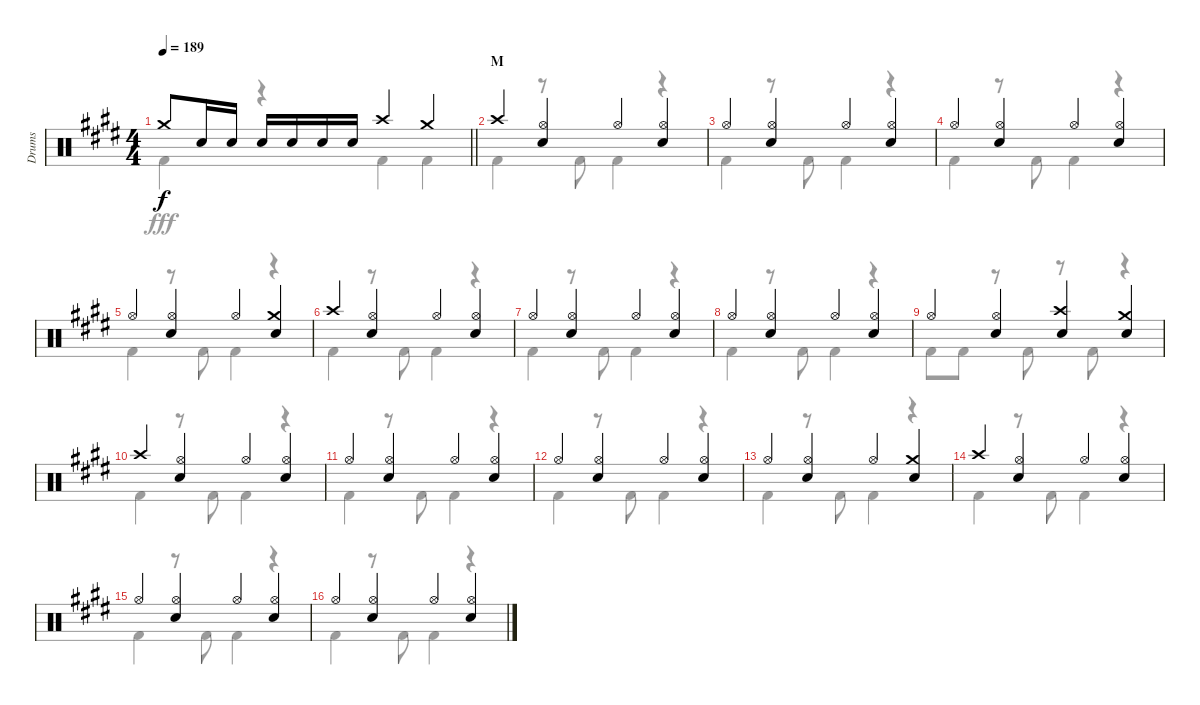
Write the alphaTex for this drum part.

\track ("Drums" "Drums") {instrument percussion}
\staff {score}
\articulation defaults
\voice
\ts (4 4)
\tempo 189
\clef neutral
\barLineRight lightlight
\ks e "Crash medium (hit)".8{dy f} "Snare (hit) 2".16 "Snare (hit) 2".16 "Snare (hit) 2".16 "Snare (hit) 2".16 "Snare (hit) 2".16 "Snare (hit) 2".16 "Crash high (hit)".4 "Crash medium (hit)".4
|
\section ("" "M")
"Crash high (hit)".4 ("Hi-Hat (open)" "Snare (hit) 2").4 "Hi-Hat (open)".4 ("Hi-Hat (open)" "Snare (hit) 2").4 |
"Hi-Hat (open)".4 ("Hi-Hat (open)" "Snare (hit) 2").4 "Hi-Hat (open)".4 ("Hi-Hat (open)" "Snare (hit) 2").4 |
"Hi-Hat (open)".4 ("Hi-Hat (open)" "Snare (hit) 2").4 "Hi-Hat (open)".4 ("Hi-Hat (open)" "Snare (hit) 2").4 |
"Hi-Hat (open)".4 ("Hi-Hat (open)" "Snare (hit) 2").4 "Hi-Hat (open)".4 ("Crash medium (hit)" "Snare (hit) 2").4 |
"Crash high (hit)".4 ("Hi-Hat (open)" "Snare (hit) 2").4 "Hi-Hat (open)".4 ("Hi-Hat (open)" "Snare (hit) 2").4 |
"Hi-Hat (open)".4 ("Hi-Hat (open)" "Snare (hit) 2").4 "Hi-Hat (open)".4 ("Hi-Hat (open)" "Snare (hit) 2").4 |
"Hi-Hat (open)".4 ("Hi-Hat (open)" "Snare (hit) 2").4 "Hi-Hat (open)".4 ("Hi-Hat (open)" "Snare (hit) 2").4 |
"Hi-Hat (open)".4 ("Hi-Hat (open)" "Snare (hit) 2").4 ("Crash high (hit)" "Snare (hit) 2").4 ("Crash medium (hit)" "Snare (hit) 2").4 |
"Crash high (hit)".4 ("Hi-Hat (open)" "Snare (hit) 2").4 "Hi-Hat (open)".4 ("Hi-Hat (open)" "Snare (hit) 2").4 |
"Hi-Hat (open)".4 ("Hi-Hat (open)" "Snare (hit) 2").4 "Hi-Hat (open)".4 ("Hi-Hat (open)" "Snare (hit) 2").4 |
"Hi-Hat (open)".4 ("Hi-Hat (open)" "Snare (hit) 2").4 "Hi-Hat (open)".4 ("Hi-Hat (open)" "Snare (hit) 2").4 |
"Hi-Hat (open)".4 ("Hi-Hat (open)" "Snare (hit) 2").4 "Hi-Hat (open)".4 ("Crash medium (hit)" "Snare (hit) 2").4 |
"Crash high (hit)".4 ("Hi-Hat (open)" "Snare (hit) 2").4 "Hi-Hat (open)".4 ("Hi-Hat (open)" "Snare (hit) 2").4 |
"Hi-Hat (open)".4 ("Hi-Hat (open)" "Snare (hit) 2").4 "Hi-Hat (open)".4 ("Hi-Hat (open)" "Snare (hit) 2").4 |
"Hi-Hat (open)".4 ("Hi-Hat (open)" "Snare (hit) 2").4 "Hi-Hat (open)".4 ("Hi-Hat (open)" "Snare (hit) 2").4
\voice
\clef neutral
\ottava regular
\simile none
\barLineRight lightlight
\ks e "Kick (hit) 2".4{dy fff}
r.4 "Kick (hit) 2".4 "Kick (hit) 2".4 |
"Kick (hit) 2".4 r.8 "Kick (hit) 2".8 "Kick (hit) 2".4 r.4 |
"Kick (hit) 2".4 r.8 "Kick (hit) 2".8 "Kick (hit) 2".4 r.4 |
"Kick (hit) 2".4 r.8 "Kick (hit) 2".8 "Kick (hit) 2".4 r.4 |
"Kick (hit) 2".4 r.8 "Kick (hit) 2".8 "Kick (hit) 2".4 r.4 |
"Kick (hit) 2".4 r.8 "Kick (hit) 2".8 "Kick (hit) 2".4 r.4 |
"Kick (hit) 2".4 r.8 "Kick (hit) 2".8 "Kick (hit) 2".4 r.4 |
"Kick (hit) 2".4 r.8 "Kick (hit) 2".8 "Kick (hit) 2".4 r.4 |
"Kick (hit) 2".8 "Kick (hit) 2".8 r.8 "Kick (hit) 2".8 r.8 "Kick (hit) 2".8 r.4 |
"Kick (hit) 2".4 r.8 "Kick (hit) 2".8 "Kick (hit) 2".4 r.4 |
"Kick (hit) 2".4 r.8 "Kick (hit) 2".8 "Kick (hit) 2".4 r.4 |
"Kick (hit) 2".4 r.8 "Kick (hit) 2".8 "Kick (hit) 2".4 r.4 |
"Kick (hit) 2".4 r.8 "Kick (hit) 2".8 "Kick (hit) 2".4 r.4 |
"Kick (hit) 2".4 r.8 "Kick (hit) 2".8 "Kick (hit) 2".4 r.4 |
"Kick (hit) 2".4 r.8 "Kick (hit) 2".8 "Kick (hit) 2".4 r.4 |
"Kick (hit) 2".4 r.8 "Kick (hit) 2".8 "Kick (hit) 2".4 r.4
